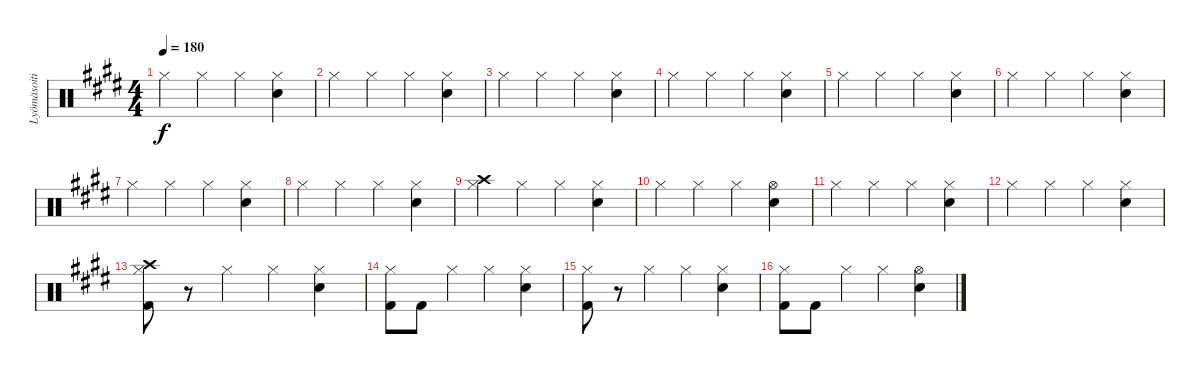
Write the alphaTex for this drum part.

\track ("Lyömäsoitin" "Lyömäsoiti") {instrument percussion}
\staff {score}
\articulation defaults
\ts (4 4)
\tempo 180
\clef neutral
\ks e "Hi-Hat (closed)".4{dy f} "Hi-Hat (closed)".4 "Hi-Hat (closed)".4
("Hi-Hat (closed)" "Electric Snare (hit)").4 |
"Hi-Hat (closed)".4 "Hi-Hat (closed)".4 "Hi-Hat (closed)".4 ("Hi-Hat (closed)" "Electric Snare (hit)").4 |
"Hi-Hat (closed)".4 "Hi-Hat (closed)".4 "Hi-Hat (closed)".4 ("Hi-Hat (closed)" "Electric Snare (hit)").4 |
"Hi-Hat (closed)".4 "Hi-Hat (closed)".4 "Hi-Hat (closed)".4 ("Hi-Hat (closed)" "Electric Snare (hit)").4 |
"Hi-Hat (closed)".4 "Hi-Hat (closed)".4 "Hi-Hat (closed)".4 ("Hi-Hat (closed)" "Electric Snare (hit)").4 |
"Hi-Hat (closed)".4 "Hi-Hat (closed)".4 "Hi-Hat (closed)".4 ("Hi-Hat (closed)" "Electric Snare (hit)").4 |
"Hi-Hat (closed)".4 "Hi-Hat (closed)".4 "Hi-Hat (closed)".4 ("Hi-Hat (closed)" "Electric Snare (hit)").4 |
"Hi-Hat (closed)".4 "Hi-Hat (closed)".4 "Hi-Hat (closed)".4 ("Hi-Hat (closed)" "Electric Snare (hit)").4 |
("Crash high (hit)" "Hi-Hat (closed)").4 "Hi-Hat (closed)".4 "Hi-Hat (closed)".4 ("Hi-Hat (closed)" "Electric Snare (hit)").4 |
"Hi-Hat (closed)".4 "Hi-Hat (closed)".4 "Hi-Hat (closed)".4 ("Hi-Hat (open)" "Electric Snare (hit)").4 |
"Hi-Hat (closed)".4 "Hi-Hat (closed)".4 "Hi-Hat (closed)".4 ("Hi-Hat (closed)" "Electric Snare (hit)").4 |
"Hi-Hat (closed)".4 "Hi-Hat (closed)".4 "Hi-Hat (closed)".4 ("Hi-Hat (closed)" "Electric Snare (hit)").4 |
("Crash high (hit)" "Hi-Hat (closed)" "Kick (hit) 2").8 r.8 "Hi-Hat (closed)".4 "Hi-Hat (closed)".4 ("Hi-Hat (closed)" "Electric Snare (hit)").4 |
("Hi-Hat (closed)" "Kick (hit) 2").8 "Kick (hit) 2".8 "Hi-Hat (closed)".4 "Hi-Hat (closed)".4 ("Hi-Hat (closed)" "Electric Snare (hit)").4 |
("Hi-Hat (closed)" "Kick (hit) 2").8 r.8 "Hi-Hat (closed)".4 "Hi-Hat (closed)".4 ("Hi-Hat (closed)" "Electric Snare (hit)").4 |
("Hi-Hat (closed)" "Kick (hit) 2").8 "Kick (hit) 2".8 "Hi-Hat (closed)".4 "Hi-Hat (closed)".4 ("Hi-Hat (open)" "Electric Snare (hit)").4
